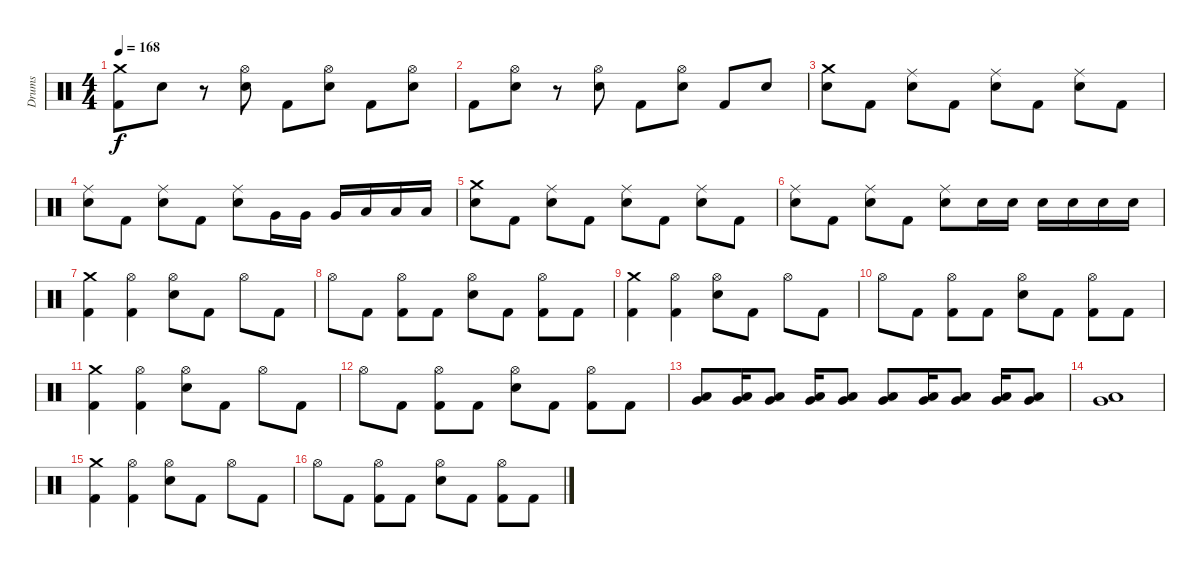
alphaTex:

\track ("Drums" "Drums") {instrument percussion}
\staff
\articulation defaults
\ts (4 4)
\tempo 168
\clef neutral
\ks c
("Crash medium (hit)" "Kick (hit) 2").8{dy f} "Electric Snare (hit)".8 r.8 ("Hi-Hat (open)" "Electric Snare (hit)").8 "Kick (hit) 2".8 ("Hi-Hat (open)" "Electric Snare (hit)").8 "Kick (hit) 2".8 ("Hi-Hat (open)" "Electric Snare (hit)").8 |
"Kick (hit) 2".8 ("Hi-Hat (open)" "Electric Snare (hit)").8 r.8 ("Hi-Hat (open)" "Electric Snare (hit)").8 "Kick (hit) 2".8 ("Hi-Hat (open)" "Electric Snare (hit)").8 "Kick (hit) 2".8 "Electric Snare (hit)".8 |
("Crash medium (hit)" "Electric Snare (hit)").8 "Kick (hit) 2".8 ("Ride (middle)" "Electric Snare (hit)").8 "Kick (hit) 2".8 ("Ride (middle)" "Electric Snare (hit)").8 "Kick (hit) 2".8 ("Ride (middle)" "Electric Snare (hit)").8 "Kick (hit) 2".8 |
("Ride (middle)" "Electric Snare (hit)").8 "Kick (hit) 2".8 ("Ride (middle)" "Electric Snare (hit)").8 "Kick (hit) 2".8 ("Ride (middle)" "Electric Snare (hit)").8 "Very Low Tom (hit)".16 "Very Low Tom (hit)".16 "Very Low Tom (hit)".16 "Low Floor Tom (hit)".16 "Low Floor Tom (hit)".16 "Low Floor Tom (hit)".16 |
("Crash medium (hit)" "Electric Snare (hit)").8 "Kick (hit) 2".8 ("Ride (middle)" "Electric Snare (hit)").8 "Kick (hit) 2".8 ("Ride (middle)" "Electric Snare (hit)").8 "Kick (hit) 2".8 ("Ride (middle)" "Electric Snare (hit)").8 "Kick (hit) 2".8 |
("Ride (middle)" "Electric Snare (hit)").8 "Kick (hit) 2".8 ("Ride (middle)" "Electric Snare (hit)").8 "Kick (hit) 2".8 ("Ride (middle)" "Electric Snare (hit)").8 "Electric Snare (hit)".16 "Electric Snare (hit)".16 "Electric Snare (hit)".16 "Electric Snare (hit)".16 "Electric Snare (hit)".16 "Electric Snare (hit)".16 |
("Crash medium (hit)" "Kick (hit) 2").4 ("Hi-Hat (open)" "Kick (hit) 2").4 ("Hi-Hat (open)" "Electric Snare (hit)").8 "Kick (hit) 2".8 "Hi-Hat (open)".8 "Kick (hit) 2".8 |
"Hi-Hat (open)".8 "Kick (hit) 2".8 ("Hi-Hat (open)" "Kick (hit) 2").8 "Kick (hit) 2".8 ("Hi-Hat (open)" "Electric Snare (hit)").8 "Kick (hit) 2".8 ("Hi-Hat (open)" "Kick (hit) 2").8 "Kick (hit) 2".8 |
("Crash medium (hit)" "Kick (hit) 2").4 ("Hi-Hat (open)" "Kick (hit) 2").4 ("Hi-Hat (open)" "Electric Snare (hit)").8 "Kick (hit) 2".8 "Hi-Hat (open)".8 "Kick (hit) 2".8 |
"Hi-Hat (open)".8 "Kick (hit) 2".8 ("Hi-Hat (open)" "Kick (hit) 2").8 "Kick (hit) 2".8 ("Hi-Hat (open)" "Electric Snare (hit)").8 "Kick (hit) 2".8 ("Hi-Hat (open)" "Kick (hit) 2").8 "Kick (hit) 2".8 |
("Crash medium (hit)" "Kick (hit) 2").4 ("Hi-Hat (open)" "Kick (hit) 2").4 ("Hi-Hat (open)" "Electric Snare (hit)").8 "Kick (hit) 2".8 "Hi-Hat (open)".8 "Kick (hit) 2".8 |
"Hi-Hat (open)".8 "Kick (hit) 2".8 ("Hi-Hat (open)" "Kick (hit) 2").8 "Kick (hit) 2".8 ("Hi-Hat (open)" "Electric Snare (hit)").8 "Kick (hit) 2".8 ("Hi-Hat (open)" "Kick (hit) 2").8 "Kick (hit) 2".8 |
("Low Floor Tom (hit)" "Very Low Tom (hit)").8{bd 60} ("Low Floor Tom (hit)" "Very Low Tom (hit)").16{bd 60} ("Low Floor Tom (hit)" "Very Low Tom (hit)").8{bu 60} ("Low Floor Tom (hit)" "Very Low Tom (hit)").16{bd 60} ("Low Floor Tom (hit)" "Very Low Tom (hit)").8{bu 60} ("Low Floor Tom (hit)" "Very Low Tom (hit)").8{bd 60} ("Low Floor Tom (hit)" "Very Low Tom (hit)").16{bd 60} ("Low Floor Tom (hit)" "Very Low Tom (hit)").8{bu 60} ("Low Floor Tom (hit)" "Very Low Tom (hit)").16{bd 60} ("Low Floor Tom (hit)" "Very Low Tom (hit)").8{bu 60} |
("Low Floor Tom (hit)" "Very Low Tom (hit)").1{bd 60} |
("Crash medium (hit)" "Kick (hit) 2").4 ("Hi-Hat (open)" "Kick (hit) 2").4 ("Hi-Hat (open)" "Electric Snare (hit)").8 "Kick (hit) 2".8 "Hi-Hat (open)".8 "Kick (hit) 2".8 |
"Hi-Hat (open)".8 "Kick (hit) 2".8 ("Hi-Hat (open)" "Kick (hit) 2").8 "Kick (hit) 2".8 ("Hi-Hat (open)" "Electric Snare (hit)").8 "Kick (hit) 2".8 ("Hi-Hat (open)" "Kick (hit) 2").8 "Kick (hit) 2".8
